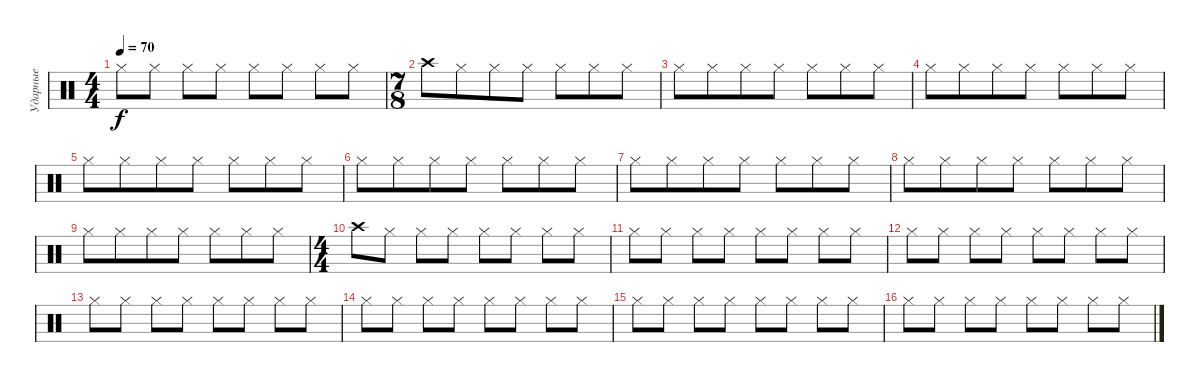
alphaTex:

\track ("Ударные" "Ударные") {instrument percussion}
\staff {score}
\articulation defaults
\ts (4 4)
\tempo 70
\clef neutral
\ks c "Hi-Hat (closed)".8{dy f} "Hi-Hat (closed)".8 "Hi-Hat (closed)".8 "Hi-Hat (closed)".8 "Hi-Hat (closed)".8 "Hi-Hat (closed)".8 "Hi-Hat (closed)".8 "Hi-Hat (closed)".8
|
\ts (7 8)
"Crash high (hit)".8 "Hi-Hat (closed)".8 "Hi-Hat (closed)".8 "Hi-Hat (closed)".8 "Hi-Hat (closed)".8 "Hi-Hat (closed)".8 "Hi-Hat (closed)".8 |
"Hi-Hat (closed)".8 "Hi-Hat (closed)".8 "Hi-Hat (closed)".8 "Hi-Hat (closed)".8 "Hi-Hat (closed)".8 "Hi-Hat (closed)".8 "Hi-Hat (closed)".8 |
"Hi-Hat (closed)".8 "Hi-Hat (closed)".8 "Hi-Hat (closed)".8 "Hi-Hat (closed)".8 "Hi-Hat (closed)".8 "Hi-Hat (closed)".8 "Hi-Hat (closed)".8 |
"Hi-Hat (closed)".8 "Hi-Hat (closed)".8 "Hi-Hat (closed)".8 "Hi-Hat (closed)".8 "Hi-Hat (closed)".8 "Hi-Hat (closed)".8 "Hi-Hat (closed)".8 |
"Hi-Hat (closed)".8 "Hi-Hat (closed)".8 "Hi-Hat (closed)".8 "Hi-Hat (closed)".8 "Hi-Hat (closed)".8 "Hi-Hat (closed)".8 "Hi-Hat (closed)".8 |
"Hi-Hat (closed)".8 "Hi-Hat (closed)".8 "Hi-Hat (closed)".8 "Hi-Hat (closed)".8 "Hi-Hat (closed)".8 "Hi-Hat (closed)".8 "Hi-Hat (closed)".8 |
"Hi-Hat (closed)".8 "Hi-Hat (closed)".8 "Hi-Hat (closed)".8 "Hi-Hat (closed)".8 "Hi-Hat (closed)".8 "Hi-Hat (closed)".8 "Hi-Hat (closed)".8 |
"Hi-Hat (closed)".8 "Hi-Hat (closed)".8 "Hi-Hat (closed)".8 "Hi-Hat (closed)".8 "Hi-Hat (closed)".8 "Hi-Hat (closed)".8 "Hi-Hat (closed)".8 |
\ts (4 4)
"Crash high (hit)".8 "Hi-Hat (closed)".8 "Hi-Hat (closed)".8 "Hi-Hat (closed)".8 "Hi-Hat (closed)".8 "Hi-Hat (closed)".8 "Hi-Hat (closed)".8 "Hi-Hat (closed)".8 |
"Hi-Hat (closed)".8 "Hi-Hat (closed)".8 "Hi-Hat (closed)".8 "Hi-Hat (closed)".8 "Hi-Hat (closed)".8 "Hi-Hat (closed)".8 "Hi-Hat (closed)".8 "Hi-Hat (closed)".8 |
"Hi-Hat (closed)".8 "Hi-Hat (closed)".8 "Hi-Hat (closed)".8 "Hi-Hat (closed)".8 "Hi-Hat (closed)".8 "Hi-Hat (closed)".8 "Hi-Hat (closed)".8 "Hi-Hat (closed)".8 |
"Hi-Hat (closed)".8 "Hi-Hat (closed)".8 "Hi-Hat (closed)".8 "Hi-Hat (closed)".8 "Hi-Hat (closed)".8 "Hi-Hat (closed)".8 "Hi-Hat (closed)".8 "Hi-Hat (closed)".8 |
"Hi-Hat (closed)".8 "Hi-Hat (closed)".8 "Hi-Hat (closed)".8 "Hi-Hat (closed)".8 "Hi-Hat (closed)".8 "Hi-Hat (closed)".8 "Hi-Hat (closed)".8 "Hi-Hat (closed)".8 |
"Hi-Hat (closed)".8 "Hi-Hat (closed)".8 "Hi-Hat (closed)".8 "Hi-Hat (closed)".8 "Hi-Hat (closed)".8 "Hi-Hat (closed)".8 "Hi-Hat (closed)".8 "Hi-Hat (closed)".8 |
"Hi-Hat (closed)".8 "Hi-Hat (closed)".8 "Hi-Hat (closed)".8 "Hi-Hat (closed)".8 "Hi-Hat (closed)".8 "Hi-Hat (closed)".8 "Hi-Hat (closed)".8 "Hi-Hat (closed)".8
